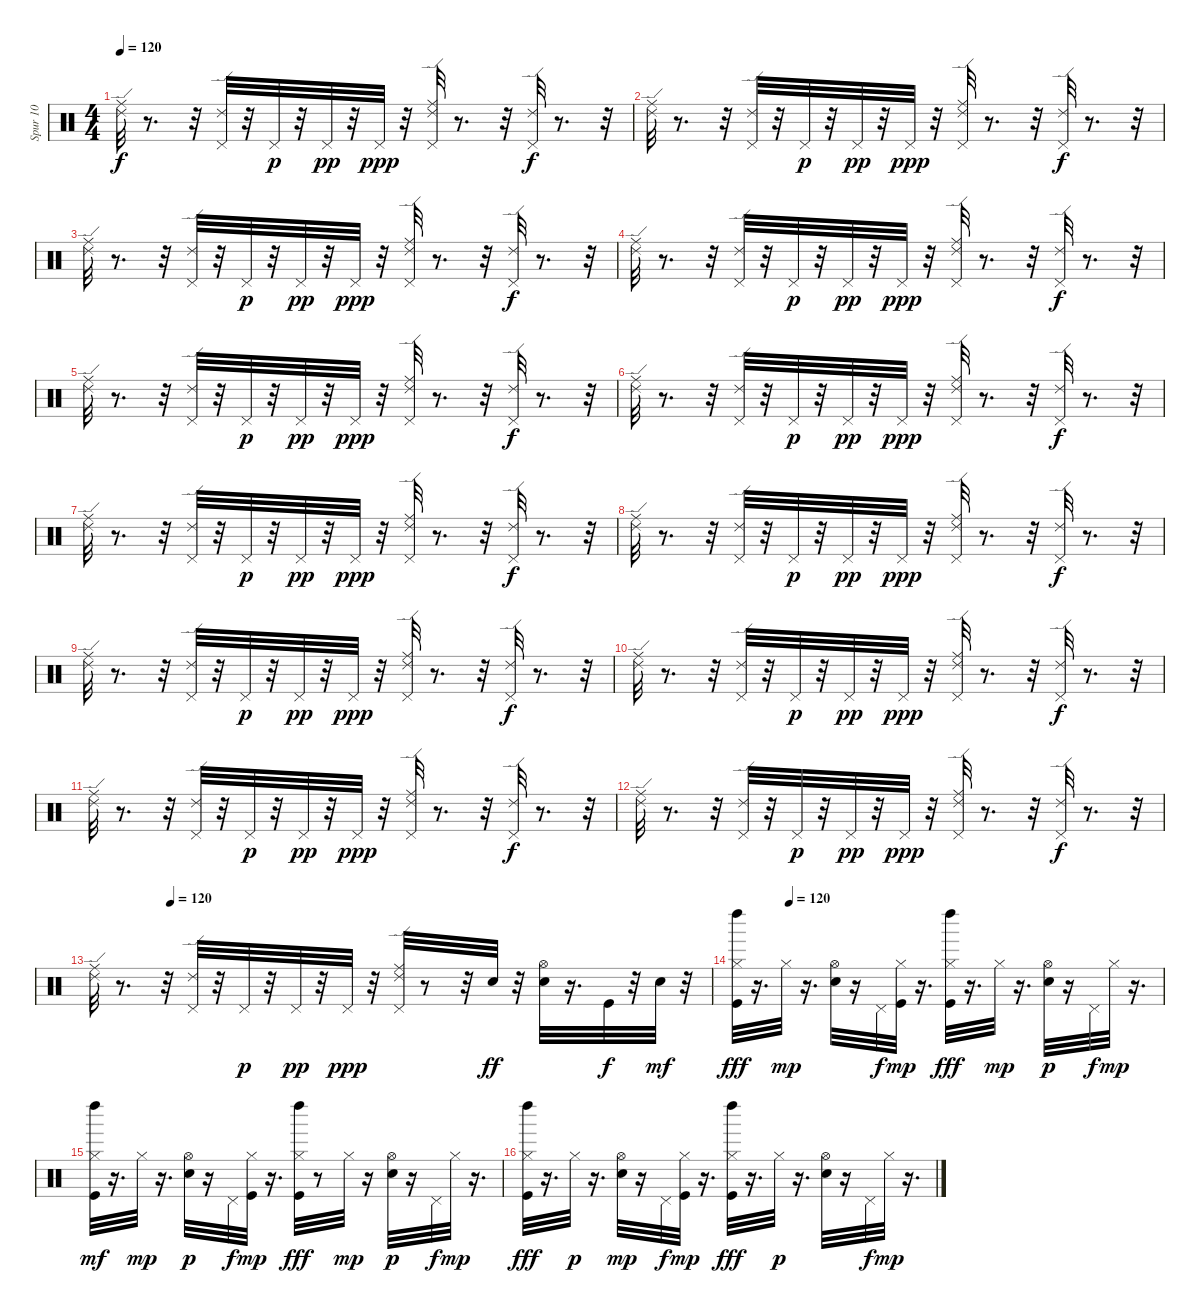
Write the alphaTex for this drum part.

\track ("Spur 10" "Spur 10") {instrument percussion}
\staff {score}
\articulation defaults
\ts (4 4)
\tempo 120
\clef neutral
\ks c
("Ride (edge) 2" "Ride (middle)").32{dy f} r.8{d} r.32 ("Ride (edge) 2" "Pedal Hi-Hat (hit)").32 r.32 "Pedal Hi-Hat (hit)".32{dy p} r.32 "Pedal Hi-Hat (hit)".32{dy pp} r.32 "Pedal Hi-Hat (hit)".32{dy ppp} r.32 ("Pedal Hi-Hat (hit)" "Ride (middle)" "Ride (edge) 2").32 r.8{d} r.32 ("Ride (edge) 2" "Pedal Hi-Hat (hit)").32{dy f} r.8{d} r.32 |
("Ride (middle)" "Ride (edge) 2").32 r.8{d} r.32 ("Ride (edge) 2" "Pedal Hi-Hat (hit)").32 r.32 "Pedal Hi-Hat (hit)".32{dy p} r.32 "Pedal Hi-Hat (hit)".32{dy pp} r.32 "Pedal Hi-Hat (hit)".32{dy ppp} r.32 ("Pedal Hi-Hat (hit)" "Ride (middle)" "Ride (edge) 2").32 r.8{d} r.32 ("Pedal Hi-Hat (hit)" "Ride (edge) 2").32{dy f} r.8{d} r.32 |
("Ride (edge) 2" "Ride (middle)").32 r.8{d} r.32 ("Ride (edge) 2" "Pedal Hi-Hat (hit)").32 r.32 "Pedal Hi-Hat (hit)".32{dy p} r.32 "Pedal Hi-Hat (hit)".32{dy pp} r.32 "Pedal Hi-Hat (hit)".32{dy ppp} r.32 ("Pedal Hi-Hat (hit)" "Ride (middle)" "Ride (edge) 2").32 r.8{d} r.32 ("Pedal Hi-Hat (hit)" "Ride (edge) 2").32{dy f} r.8{d} r.32 |
("Ride (middle)" "Ride (edge) 2").32 r.8{d} r.32 ("Ride (edge) 2" "Pedal Hi-Hat (hit)").32 r.32 "Pedal Hi-Hat (hit)".32{dy p} r.32 "Pedal Hi-Hat (hit)".32{dy pp} r.32 "Pedal Hi-Hat (hit)".32{dy ppp} r.32 ("Pedal Hi-Hat (hit)" "Ride (middle)" "Ride (edge) 2").32 r.8{d} r.32 ("Pedal Hi-Hat (hit)" "Ride (edge) 2").32{dy f} r.8{d} r.32 |
("Ride (middle)" "Ride (edge) 2").32 r.8{d} r.32 ("Ride (edge) 2" "Pedal Hi-Hat (hit)").32 r.32 "Pedal Hi-Hat (hit)".32{dy p} r.32 "Pedal Hi-Hat (hit)".32{dy pp} r.32 "Pedal Hi-Hat (hit)".32{dy ppp} r.32 ("Pedal Hi-Hat (hit)" "Ride (middle)" "Ride (edge) 2").32 r.8{d} r.32 ("Ride (edge) 2" "Pedal Hi-Hat (hit)").32{dy f} r.8{d} r.32 |
("Ride (edge) 2" "Ride (middle)").32 r.8{d} r.32 ("Pedal Hi-Hat (hit)" "Ride (edge) 2").32 r.32 "Pedal Hi-Hat (hit)".32{dy p} r.32 "Pedal Hi-Hat (hit)".32{dy pp} r.32 "Pedal Hi-Hat (hit)".32{dy ppp} r.32 ("Pedal Hi-Hat (hit)" "Ride (middle)" "Ride (edge) 2").32 r.8{d} r.32 ("Ride (edge) 2" "Pedal Hi-Hat (hit)").32{dy f} r.8{d} r.32 |
("Ride (middle)" "Ride (edge) 2").32 r.8{d} r.32 ("Pedal Hi-Hat (hit)" "Ride (edge) 2").32 r.32 "Pedal Hi-Hat (hit)".32{dy p} r.32 "Pedal Hi-Hat (hit)".32{dy pp} r.32 "Pedal Hi-Hat (hit)".32{dy ppp} r.32 ("Pedal Hi-Hat (hit)" "Ride (middle)" "Ride (edge) 2").32 r.8{d} r.32 ("Pedal Hi-Hat (hit)" "Ride (edge) 2").32{dy f} r.8{d} r.32 |
("Ride (edge) 2" "Ride (middle)").32 r.8{d} r.32 ("Pedal Hi-Hat (hit)" "Ride (edge) 2").32 r.32 "Pedal Hi-Hat (hit)".32{dy p} r.32 "Pedal Hi-Hat (hit)".32{dy pp} r.32 "Pedal Hi-Hat (hit)".32{dy ppp} r.32 ("Pedal Hi-Hat (hit)" "Ride (middle)" "Ride (edge) 2").32 r.8{d} r.32 ("Ride (edge) 2" "Pedal Hi-Hat (hit)").32{dy f} r.8{d} r.32 |
("Ride (middle)" "Ride (edge) 2").32 r.8{d} r.32 ("Pedal Hi-Hat (hit)" "Ride (edge) 2").32 r.32 "Pedal Hi-Hat (hit)".32{dy p} r.32 "Pedal Hi-Hat (hit)".32{dy pp} r.32 "Pedal Hi-Hat (hit)".32{dy ppp} r.32 ("Pedal Hi-Hat (hit)" "Ride (middle)" "Ride (edge) 2").32 r.8{d} r.32 ("Ride (edge) 2" "Pedal Hi-Hat (hit)").32{dy f} r.8{d} r.32 |
("Ride (edge) 2" "Ride (middle)").32 r.8{d} r.32 ("Pedal Hi-Hat (hit)" "Ride (edge) 2").32 r.32 "Pedal Hi-Hat (hit)".32{dy p} r.32 "Pedal Hi-Hat (hit)".32{dy pp} r.32 "Pedal Hi-Hat (hit)".32{dy ppp} r.32 ("Pedal Hi-Hat (hit)" "Ride (middle)" "Ride (edge) 2").32 r.8{d} r.32 ("Pedal Hi-Hat (hit)" "Ride (edge) 2").32{dy f} r.8{d} r.32 |
("Ride (edge) 2" "Ride (middle)").32 r.8{d} r.32 ("Ride (edge) 2" "Pedal Hi-Hat (hit)").32 r.32 "Pedal Hi-Hat (hit)".32{dy p} r.32 "Pedal Hi-Hat (hit)".32{dy pp} r.32 "Pedal Hi-Hat (hit)".32{dy ppp} r.32 ("Pedal Hi-Hat (hit)" "Ride (middle)" "Ride (edge) 2").32 r.8{d} r.32 ("Ride (edge) 2" "Pedal Hi-Hat (hit)").32{dy f} r.8{d} r.32 |
("Ride (middle)" "Ride (edge) 2").32 r.8{d} r.32 ("Pedal Hi-Hat (hit)" "Ride (edge) 2").32 r.32 "Pedal Hi-Hat (hit)".32{dy p} r.32 "Pedal Hi-Hat (hit)".32{dy pp} r.32 "Pedal Hi-Hat (hit)".32{dy ppp} r.32 ("Pedal Hi-Hat (hit)" "Ride (middle)" "Ride (edge) 2").32 r.8{d} r.32 ("Ride (edge) 2" "Pedal Hi-Hat (hit)").32{dy f} r.8{d} r.32 |
\tempo (120 0.125)
("Ride (edge) 2" "Ride (middle)").32 r.8{d} r.32 ("Ride (edge) 2" "Pedal Hi-Hat (hit)").32 r.32 "Pedal Hi-Hat (hit)".32{dy p} r.32 "Pedal Hi-Hat (hit)".32{dy pp} r.32 "Pedal Hi-Hat (hit)".32{dy ppp} r.32 ("Pedal Hi-Hat (hit)" "Ride (middle)" "Ride (edge) 2").32 r.8 r.32 "Snare (hit) 2".32{dy ff} r.32 ("Hi-Hat (open)" "Electric Snare (hit)").32 r.16{d} "Kick (hit)".32{dy f} r.32 "Electric Snare (hit)".32{dy mf} r.32 |
\tempo (120 0.125)
("Kick (hit)" "Left Maraca (hit)" "Hi-Hat (closed)").32{dy fff} r.16{d} "Hi-Hat (closed)".32{dy mp} r.16{d} ("Electric Snare (hit)" "Hi-Hat (open)").32 r.16 "Pedal Hi-Hat (hit)".32{dy f} ("Kick (hit)" "Hi-Hat (closed)").32{dy mp} r.16{d} ("Kick (hit)" "Left Maraca (hit)" "Hi-Hat (closed)").32{dy fff} r.16{d} "Hi-Hat (closed)".32{dy mp} r.16{d} ("Electric Snare (hit)" "Hi-Hat (open)").32{dy p} r.16 "Pedal Hi-Hat (hit)".32{dy f} "Hi-Hat (closed)".32{dy mp} r.16{d} |
("Left Maraca (hit)" "Hi-Hat (closed)" "Kick (hit)").32{dy mf} r.16{d} "Hi-Hat (closed)".32{dy mp} r.16{d} ("Electric Snare (hit)" "Hi-Hat (open)").32{dy p} r.16 "Pedal Hi-Hat (hit)".32{dy f} ("Kick (hit)" "Hi-Hat (closed)").32{dy mp} r.16{d} ("Kick (hit)" "Left Maraca (hit)" "Hi-Hat (closed)").32{dy fff} r.8 "Hi-Hat (closed)".32{dy mp} r.16 ("Electric Snare (hit)" "Hi-Hat (open)").32{dy p} r.16 "Pedal Hi-Hat (hit)".32{dy f} "Hi-Hat (closed)".32{dy mp} r.16{d} |
("Kick (hit)" "Left Maraca (hit)" "Hi-Hat (closed)").32{dy fff} r.16{d} "Hi-Hat (closed)".32{dy p} r.16{d} ("Electric Snare (hit)" "Hi-Hat (open)").32{dy mp} r.16 "Pedal Hi-Hat (hit)".32{dy f} ("Kick (hit)" "Hi-Hat (closed)").32{dy mp} r.16{d} ("Kick (hit)" "Left Maraca (hit)" "Hi-Hat (closed)").32{dy fff} r.16{d} "Hi-Hat (closed)".32{dy p} r.16{d} ("Hi-Hat (open)" "Electric Snare (hit)").32 r.16 "Pedal Hi-Hat (hit)".32{dy f} "Hi-Hat (closed)".32{dy mp} r.16{d}
